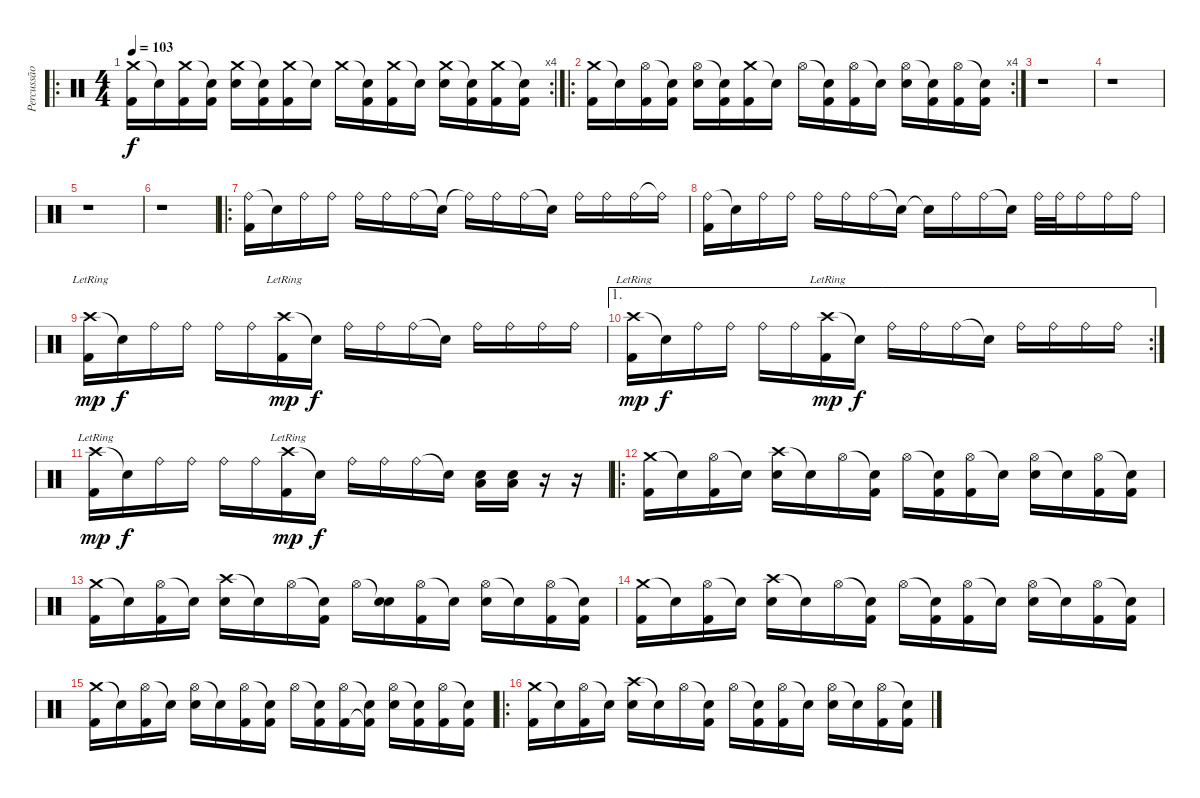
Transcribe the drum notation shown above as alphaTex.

\track ("Percussão" "Percussão") {instrument percussion}
\staff {score}
\articulation defaults
\ro
\rc 4
\ts (4 4)
\tempo 103
\clef neutral
\ks c
("Crash medium (hit)" "Kick (hit) 2").16{dy f} "Snare (hit)"{t}.16 ("Crash medium (hit)" "Kick (hit) 2").16 ("Snare (hit)"{t} "Kick (hit) 2").16 ("Crash medium (hit)" "Electric Snare (hit)").16 ("Snare (hit)"{t} "Kick (hit) 2").16 ("Crash medium (hit)" "Kick (hit) 2").16 "Snare (hit)"{t}.16 "Crash medium (hit)".16 ("Snare (hit)"{t} "Kick (hit) 2").16 ("Crash medium (hit)" "Kick (hit) 2").16 "Snare (hit)"{t}.16 ("Crash medium (hit)" "Electric Snare (hit)").16 ("Snare (hit)"{t} "Kick (hit) 2").16 ("Crash medium (hit)" "Kick (hit) 2").16 ("Snare (hit)"{t} "Kick (hit) 2").16 |
\ro
\rc 4
("Crash medium (hit)" "Kick (hit) 2").16 "Snare (hit)"{t}.16 ("Hi-Hat (open)" "Kick (hit) 2").16 ("Snare (hit)"{t} "Kick (hit) 2").16 ("Hi-Hat (open)" "Electric Snare (hit)").16 ("Snare (hit)"{t} "Kick (hit) 2").16 ("Crash medium (hit)" "Kick (hit) 2").16 "Snare (hit)"{t}.16 "Hi-Hat (open)".16 ("Snare (hit)"{t} "Kick (hit) 2").16 ("Hi-Hat (open)" "Kick (hit) 2").16 "Snare (hit)"{t}.16 ("Hi-Hat (open)" "Electric Snare (hit)").16 ("Snare (hit)"{t} "Kick (hit) 2").16 ("Hi-Hat (open)" "Kick (hit) 2").16 ("Snare (hit)"{t} "Kick (hit) 2").16 |
r.1 |
r.1 |
r.1 |
r.1 |
\ro
("Ride (bell)" "Kick (hit) 2").16 "Snare (hit)"{t}.16 "Ride (bell)".16 "Ride (bell)".16 "Ride (bell)".16 "Ride (bell)".16 "Ride (bell)".16 "Snare (hit)"{t}.16 "Ride (bell)"{t}.16 "Ride (bell)".16 "Ride (bell)".16 "Snare (hit)"{t}.16 "Ride (bell)".16 "Ride (bell)".16 "Ride (bell)".16 "Ride (bell)"{t}.16 |
("Ride (bell)" "Kick (hit) 2").16 "Snare (hit)"{t}.16 "Ride (bell)".16 "Ride (bell)".16 "Ride (bell)".16 "Ride (bell)".16 "Ride (bell)".16 "Snare (hit)"{t}.16 "Snare (hit)"{t}.16 "Ride (bell)".16 "Ride (bell)".16 "Snare (hit)"{t}.16 "Ride (bell)".32 "Ride (bell)".32 "Ride (bell)".16 "Ride (bell)".16 "Ride (bell)".16 |
("Crash high (hit)"{lr} "Kick (hit) 2").16{dy mp} "Snare (hit)"{t}.16{dy f} "Ride (bell)".16 "Ride (bell)".16 "Ride (bell)".16 "Ride (bell)".16 ("Crash high (hit)"{lr} "Kick (hit) 2").16{dy mp} "Snare (hit)"{t}.16{dy f} "Ride (bell)".16 "Ride (bell)".16 "Ride (bell)".16 "Snare (hit)"{t}.16 "Ride (bell)".16 "Ride (bell)".16 "Ride (bell)".16 "Ride (bell)".16 |
\ae 1
\rc 2
("Crash high (hit)"{lr} "Kick (hit) 2").16{dy mp} "Snare (hit)"{t}.16{dy f} "Ride (bell)".16 "Ride (bell)".16 "Ride (bell)".16 "Ride (bell)".16 ("Crash high (hit)"{lr} "Kick (hit) 2").16{dy mp} "Snare (hit)"{t}.16{dy f} "Ride (bell)".16 "Ride (bell)".16 "Ride (bell)".16 "Snare (hit)"{t}.16 "Ride (bell)".16 "Ride (bell)".16 "Ride (bell)".16 "Ride (bell)".16 |
("Crash high (hit)"{lr} "Kick (hit) 2").16{dy mp} "Snare (hit)"{t}.16{dy f} "Ride (bell)".16 "Ride (bell)".16 "Ride (bell)".16 "Ride (bell)".16 ("Crash high (hit)"{lr} "Kick (hit) 2").16{dy mp} "Snare (hit)"{t}.16{dy f} "Ride (bell)".16 "Ride (bell)".16 "Ride (bell)".16 "Snare (hit)"{t}.16 ("Electric Snare (hit)" "Low Tom (hit)").16 ("Electric Snare (hit)" "Low Tom (hit)").16 r.16 r.16 |
\ro
("Crash medium (hit)" "Kick (hit) 2").16 "Snare (hit)"{t}.16 ("Hi-Hat (open)" "Kick (hit) 2").16 "Snare (hit)"{t}.16 ("Crash high (hit)" "Electric Snare (hit)").16 "Snare (hit)"{t}.16 "Hi-Hat (open)".16 ("Snare (hit)"{t} "Kick (hit) 2").16 "Hi-Hat (open)".16 ("Snare (hit)"{t} "Kick (hit) 2").16 ("Hi-Hat (open)" "Kick (hit) 2").16 "Snare (hit)"{t}.16 ("Hi-Hat (open)" "Electric Snare (hit)").16 "Snare (hit)"{t}.16 ("Hi-Hat (open)" "Kick (hit) 2").16 ("Snare (hit)"{t} "Kick (hit) 2").16 |
("Crash medium (hit)" "Kick (hit) 2").16 "Snare (hit)"{t}.16 ("Hi-Hat (open)" "Kick (hit) 2").16 "Snare (hit)"{t}.16 ("Crash high (hit)" "Electric Snare (hit)").16 "Snare (hit)"{t}.16 "Hi-Hat (open)".16 ("Snare (hit)"{t} "Kick (hit) 2").16 "Hi-Hat (open)".16 ("Snare (hit)"{t} "Electric Snare (hit)").16 ("Hi-Hat (open)" "Kick (hit) 2").16 "Snare (hit)"{t}.16 ("Hi-Hat (open)" "Electric Snare (hit)").16 "Snare (hit)"{t}.16 ("Hi-Hat (open)" "Kick (hit) 2").16 ("Snare (hit)"{t} "Kick (hit) 2").16 |
("Crash medium (hit)" "Kick (hit) 2").16 "Snare (hit)"{t}.16 ("Hi-Hat (open)" "Kick (hit) 2").16 "Snare (hit)"{t}.16 ("Crash high (hit)" "Electric Snare (hit)").16 "Snare (hit)"{t}.16 "Hi-Hat (open)".16 ("Snare (hit)"{t} "Kick (hit) 2").16 "Hi-Hat (open)".16 ("Snare (hit)"{t} "Kick (hit) 2").16 ("Hi-Hat (open)" "Kick (hit) 2").16 "Snare (hit)"{t}.16 ("Hi-Hat (open)" "Electric Snare (hit)").16 "Snare (hit)"{t}.16 ("Hi-Hat (open)" "Kick (hit) 2").16 ("Snare (hit)"{t} "Kick (hit) 2").16 |
("Crash medium (hit)" "Kick (hit) 2").16 "Snare (hit)"{t}.16 ("Hi-Hat (open)" "Kick (hit) 2").16 "Snare (hit)"{t}.16 ("Hi-Hat (open)" "Electric Snare (hit)").16 "Snare (hit)"{t}.16 ("Hi-Hat (open)" "Kick (hit) 2").16 ("Snare (hit)"{t} "Kick (hit) 2").16 "Hi-Hat (open)".16 ("Snare (hit)"{t} "Kick (hit) 2").16 ("Hi-Hat (open)" "Kick (hit) 2").16 ("Snare (hit)"{t} "Kick (hit) 2"{t}).16 ("Hi-Hat (open)" "Electric Snare (hit)").16 ("Snare (hit)"{t} "Kick (hit) 2").16 ("Hi-Hat (open)" "Kick (hit) 2").16 ("Snare (hit)"{t} "Kick (hit) 2").16 |
\ro
("Crash medium (hit)" "Kick (hit) 2").16 "Snare (hit)"{t}.16 ("Hi-Hat (open)" "Kick (hit) 2").16 "Snare (hit)"{t}.16 ("Crash high (hit)" "Electric Snare (hit)").16 "Snare (hit)"{t}.16 "Hi-Hat (open)".16 ("Snare (hit)"{t} "Kick (hit) 2").16 "Hi-Hat (open)".16 ("Snare (hit)"{t} "Kick (hit) 2").16 ("Hi-Hat (open)" "Kick (hit) 2").16 "Snare (hit)"{t}.16 ("Hi-Hat (open)" "Electric Snare (hit)").16 "Snare (hit)"{t}.16 ("Hi-Hat (open)" "Kick (hit) 2").16 ("Snare (hit)"{t} "Kick (hit) 2").16
